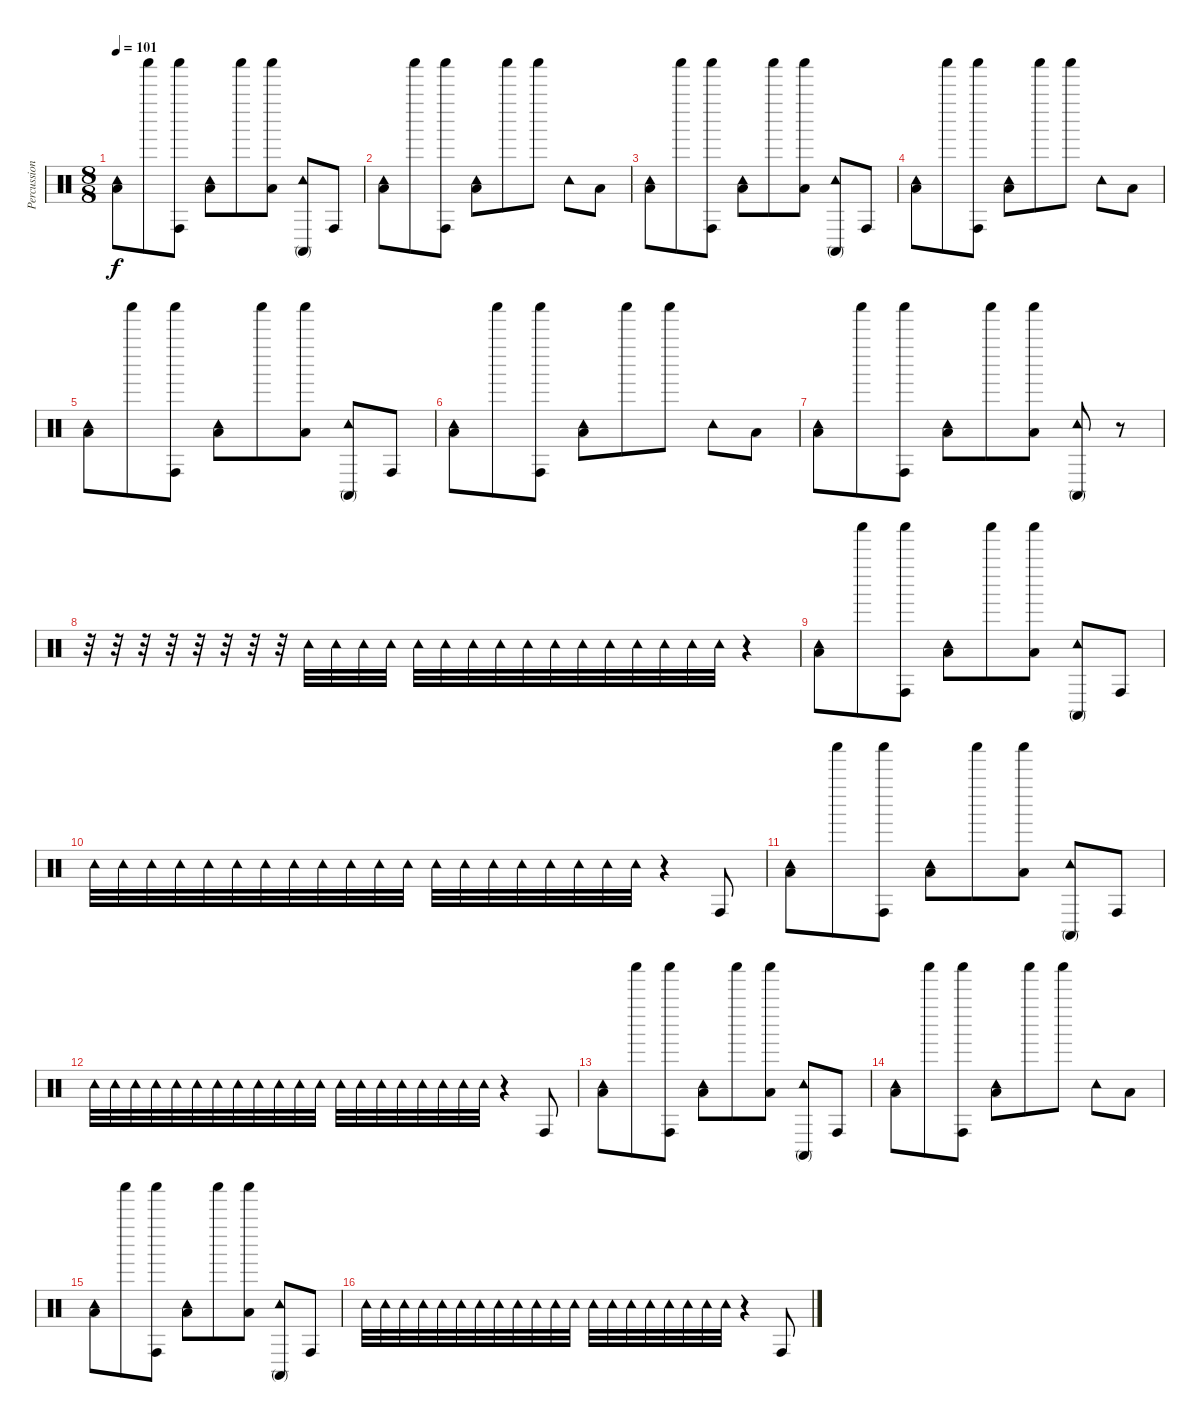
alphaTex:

\track ("Percussion" "Percussion") {instrument percussion}
\staff {score}
\articulation defaults
\ts (8 8)
\tempo 101
\clef neutral
\ks c
("Tambourine (hit)" "Low Floor Tom (hit)").8{dy f} "Shaker (hit)".8 ("Shaker (hit)" "Conga high (hit)").8 ("Tambourine (hit)" "Low Floor Tom (hit)").8 "Shaker (hit)".8 ("Shaker (hit)" "Low Floor Tom (hit)").8 ("Tambourine (hit)" "Conga high (mute)").8 "Conga high (hit)".8 |
("Tambourine (hit)" "Low Floor Tom (hit)").8 "Shaker (hit)".8 ("Shaker (hit)" "Conga high (hit)").8 ("Tambourine (hit)" "Low Floor Tom (hit)").8 "Shaker (hit)".8 "Shaker (hit)".8 "Tambourine (hit)".8 "Low Floor Tom (hit)".8 |
("Tambourine (hit)" "Low Floor Tom (hit)").8 "Shaker (hit)".8 ("Shaker (hit)" "Conga high (hit)").8 ("Tambourine (hit)" "Low Floor Tom (hit)").8 "Shaker (hit)".8 ("Shaker (hit)" "Low Floor Tom (hit)").8 ("Tambourine (hit)" "Conga high (mute)").8 "Conga high (hit)".8 |
("Tambourine (hit)" "Low Floor Tom (hit)").8 "Shaker (hit)".8 ("Shaker (hit)" "Conga high (hit)").8 ("Tambourine (hit)" "Low Floor Tom (hit)").8 "Shaker (hit)".8 "Shaker (hit)".8 "Tambourine (hit)".8 "Low Floor Tom (hit)".8 |
("Tambourine (hit)" "Low Floor Tom (hit)").8 "Shaker (hit)".8 ("Shaker (hit)" "Conga high (hit)").8 ("Tambourine (hit)" "Low Floor Tom (hit)").8 "Shaker (hit)".8 ("Shaker (hit)" "Low Floor Tom (hit)").8 ("Tambourine (hit)" "Conga high (mute)").8 "Conga high (hit)".8 |
("Tambourine (hit)" "Low Floor Tom (hit)").8 "Shaker (hit)".8 ("Shaker (hit)" "Conga high (hit)").8 ("Tambourine (hit)" "Low Floor Tom (hit)").8 "Shaker (hit)".8 "Shaker (hit)".8 "Tambourine (hit)".8 "Low Floor Tom (hit)".8 |
("Tambourine (hit)" "Low Floor Tom (hit)").8 "Shaker (hit)".8 ("Shaker (hit)" "Conga high (hit)").8 ("Tambourine (hit)" "Low Floor Tom (hit)").8 "Shaker (hit)".8 ("Shaker (hit)" "Low Floor Tom (hit)").8 ("Tambourine (hit)" "Conga high (mute)").8 r.8 |
r.32 r.32 r.32 r.32 r.32 r.32 r.32 r.32 "Tambourine (hit)".32 "Tambourine (hit)".32 "Tambourine (hit)".32 "Tambourine (hit)".32 "Tambourine (hit)".32 "Tambourine (hit)".32 "Tambourine (hit)".32 "Tambourine (hit)".32 "Tambourine (hit)".32 "Tambourine (hit)".32 "Tambourine (hit)".32 "Tambourine (hit)".32 "Tambourine (hit)".32 "Tambourine (hit)".32 "Tambourine (hit)".32 "Tambourine (hit)".32 r.4 |
("Tambourine (hit)" "Low Floor Tom (hit)").8 "Shaker (hit)".8 ("Shaker (hit)" "Conga high (hit)").8 ("Tambourine (hit)" "Low Floor Tom (hit)").8 "Shaker (hit)".8 ("Shaker (hit)" "Low Floor Tom (hit)").8 ("Tambourine (hit)" "Conga high (mute)").8 "Conga high (hit)".8 |
"Tambourine (hit)".32 "Tambourine (hit)".32 "Tambourine (hit)".32 "Tambourine (hit)".32 "Tambourine (hit)".32 "Tambourine (hit)".32 "Tambourine (hit)".32 "Tambourine (hit)".32 "Tambourine (hit)".32 "Tambourine (hit)".32 "Tambourine (hit)".32 "Tambourine (hit)".32 "Tambourine (hit)".32 "Tambourine (hit)".32 "Tambourine (hit)".32 "Tambourine (hit)".32 "Tambourine (hit)".32 "Tambourine (hit)".32 "Tambourine (hit)".32 "Tambourine (hit)".32 r.4 "Conga high (hit)".8 |
("Tambourine (hit)" "Low Floor Tom (hit)").8 "Shaker (hit)".8 ("Shaker (hit)" "Conga high (hit)").8 ("Tambourine (hit)" "Low Floor Tom (hit)").8 "Shaker (hit)".8 ("Shaker (hit)" "Low Floor Tom (hit)").8 ("Tambourine (hit)" "Conga high (mute)").8 "Conga high (hit)".8 |
"Tambourine (hit)".32 "Tambourine (hit)".32 "Tambourine (hit)".32 "Tambourine (hit)".32 "Tambourine (hit)".32 "Tambourine (hit)".32 "Tambourine (hit)".32 "Tambourine (hit)".32 "Tambourine (hit)".32 "Tambourine (hit)".32 "Tambourine (hit)".32 "Tambourine (hit)".32 "Tambourine (hit)".32 "Tambourine (hit)".32 "Tambourine (hit)".32 "Tambourine (hit)".32 "Tambourine (hit)".32 "Tambourine (hit)".32 "Tambourine (hit)".32 "Tambourine (hit)".32 r.4 "Conga high (hit)".8 |
("Tambourine (hit)" "Low Floor Tom (hit)").8 "Shaker (hit)".8 ("Shaker (hit)" "Conga high (hit)").8 ("Tambourine (hit)" "Low Floor Tom (hit)").8 "Shaker (hit)".8 ("Shaker (hit)" "Low Floor Tom (hit)").8 ("Tambourine (hit)" "Conga high (mute)").8 "Conga high (hit)".8 |
("Tambourine (hit)" "Low Floor Tom (hit)").8 "Shaker (hit)".8 ("Shaker (hit)" "Conga high (hit)").8 ("Tambourine (hit)" "Low Floor Tom (hit)").8 "Shaker (hit)".8 "Shaker (hit)".8 "Tambourine (hit)".8 "Low Floor Tom (hit)".8 |
("Tambourine (hit)" "Low Floor Tom (hit)").8 "Shaker (hit)".8 ("Shaker (hit)" "Conga high (hit)").8 ("Tambourine (hit)" "Low Floor Tom (hit)").8 "Shaker (hit)".8 ("Shaker (hit)" "Low Floor Tom (hit)").8 ("Tambourine (hit)" "Conga high (mute)").8 "Conga high (hit)".8 |
"Tambourine (hit)".32 "Tambourine (hit)".32 "Tambourine (hit)".32 "Tambourine (hit)".32 "Tambourine (hit)".32 "Tambourine (hit)".32 "Tambourine (hit)".32 "Tambourine (hit)".32 "Tambourine (hit)".32 "Tambourine (hit)".32 "Tambourine (hit)".32 "Tambourine (hit)".32 "Tambourine (hit)".32 "Tambourine (hit)".32 "Tambourine (hit)".32 "Tambourine (hit)".32 "Tambourine (hit)".32 "Tambourine (hit)".32 "Tambourine (hit)".32 "Tambourine (hit)".32 r.4 "Conga high (hit)".8
